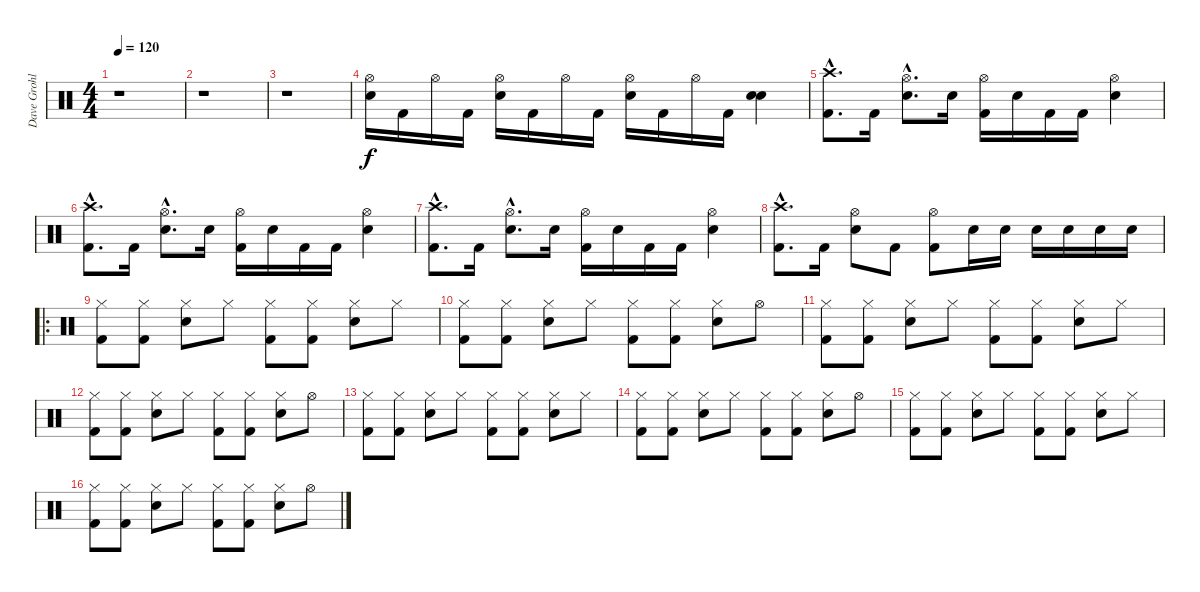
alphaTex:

\track ("Dave Grohl" "Dave Grohl") {instrument percussion}
\staff {score}
\articulation defaults
\ts (4 4)
\tempo 120
\clef neutral
\ks c
r.1{dy f} |
r.1 |
r.1 |
("Hi-Hat (open)" "Snare (hit) 2").16 "Kick (hit) 2".16 "Hi-Hat (open)".16 "Kick (hit) 2".16 ("Hi-Hat (open)" "Snare (hit) 2").16 "Kick (hit) 2".16 "Hi-Hat (open)".16 "Kick (hit) 2".16 ("Hi-Hat (open)" "Snare (hit) 2").16 "Kick (hit) 2".16 "Hi-Hat (open)".16 "Kick (hit) 2".16 ("Snare (hit) 2" "Snare (hit) 2").4 |
("Crash high (hit)"{hac} "Kick (hit) 2"{hac}).8{d} "Kick (hit) 2".16 ("Hi-Hat (open)"{hac} "Snare (hit) 2"{hac}).8{d} "Snare (hit) 2".16 ("Hi-Hat (open)" "Kick (hit) 2").16 "Snare (hit) 2".16 "Kick (hit) 2".16 "Kick (hit) 2".16 ("Hi-Hat (open)" "Snare (hit) 2").4 |
("Crash high (hit)"{hac} "Kick (hit) 2"{hac}).8{d} "Kick (hit) 2".16 ("Hi-Hat (open)"{hac} "Snare (hit) 2"{hac}).8{d} "Snare (hit) 2".16 ("Hi-Hat (open)" "Kick (hit) 2").16 "Snare (hit) 2".16 "Kick (hit) 2".16 "Kick (hit) 2".16 ("Hi-Hat (open)" "Snare (hit) 2").4 |
("Crash high (hit)"{hac} "Kick (hit) 2"{hac}).8{d} "Kick (hit) 2".16 ("Hi-Hat (open)"{hac} "Snare (hit) 2"{hac}).8{d} "Snare (hit) 2".16 ("Hi-Hat (open)" "Kick (hit) 2").16 "Snare (hit) 2".16 "Kick (hit) 2".16 "Kick (hit) 2".16 ("Hi-Hat (open)" "Snare (hit) 2").4 |
("Crash high (hit)"{hac} "Kick (hit) 2"{hac}).8{d} "Kick (hit) 2".16 ("Hi-Hat (open)" "Snare (hit) 2").8 "Kick (hit) 2".8 ("Hi-Hat (open)" "Kick (hit) 2").8 "Snare (hit) 2".16 "Snare (hit) 2".16 "Snare (hit) 2".16 "Snare (hit) 2".16 "Snare (hit) 2".16 "Snare (hit) 2".16 |
\ro
("Hi-Hat (closed)" "Kick (hit) 2").8 ("Hi-Hat (closed)" "Kick (hit) 2").8 ("Hi-Hat (closed)" "Snare (hit) 2").8 "Hi-Hat (closed)".8 ("Hi-Hat (closed)" "Kick (hit) 2").8 ("Hi-Hat (closed)" "Kick (hit) 2").8 ("Hi-Hat (closed)" "Snare (hit) 2").8 "Hi-Hat (closed)".8 |
("Hi-Hat (closed)" "Kick (hit) 2").8 ("Hi-Hat (closed)" "Kick (hit) 2").8 ("Hi-Hat (closed)" "Snare (hit) 2").8 "Hi-Hat (closed)".8 ("Hi-Hat (closed)" "Kick (hit) 2").8 ("Hi-Hat (closed)" "Kick (hit) 2").8 ("Hi-Hat (closed)" "Snare (hit) 2").8 "Hi-Hat (open)".8 |
("Hi-Hat (closed)" "Kick (hit) 2").8 ("Hi-Hat (closed)" "Kick (hit) 2").8 ("Hi-Hat (closed)" "Snare (hit) 2").8 "Hi-Hat (closed)".8 ("Hi-Hat (closed)" "Kick (hit) 2").8 ("Hi-Hat (closed)" "Kick (hit) 2").8 ("Hi-Hat (closed)" "Snare (hit) 2").8 "Hi-Hat (closed)".8 |
("Hi-Hat (closed)" "Kick (hit) 2").8 ("Hi-Hat (closed)" "Kick (hit) 2").8 ("Hi-Hat (closed)" "Snare (hit) 2").8 "Hi-Hat (closed)".8 ("Hi-Hat (closed)" "Kick (hit) 2").8 ("Hi-Hat (closed)" "Kick (hit) 2").8 ("Hi-Hat (closed)" "Snare (hit) 2").8 "Hi-Hat (open)".8 |
("Hi-Hat (closed)" "Kick (hit) 2").8 ("Hi-Hat (closed)" "Kick (hit) 2").8 ("Hi-Hat (closed)" "Snare (hit) 2").8 "Hi-Hat (closed)".8 ("Hi-Hat (closed)" "Kick (hit) 2").8 ("Hi-Hat (closed)" "Kick (hit) 2").8 ("Hi-Hat (closed)" "Snare (hit) 2").8 "Hi-Hat (closed)".8 |
("Hi-Hat (closed)" "Kick (hit) 2").8 ("Hi-Hat (closed)" "Kick (hit) 2").8 ("Hi-Hat (closed)" "Snare (hit) 2").8 "Hi-Hat (closed)".8 ("Hi-Hat (closed)" "Kick (hit) 2").8 ("Hi-Hat (closed)" "Kick (hit) 2").8 ("Hi-Hat (closed)" "Snare (hit) 2").8 "Hi-Hat (open)".8 |
("Hi-Hat (closed)" "Kick (hit) 2").8 ("Hi-Hat (closed)" "Kick (hit) 2").8 ("Hi-Hat (closed)" "Snare (hit) 2").8 "Hi-Hat (closed)".8 ("Hi-Hat (closed)" "Kick (hit) 2").8 ("Hi-Hat (closed)" "Kick (hit) 2").8 ("Hi-Hat (closed)" "Snare (hit) 2").8 "Hi-Hat (closed)".8 |
("Hi-Hat (closed)" "Kick (hit) 2").8 ("Hi-Hat (closed)" "Kick (hit) 2").8 ("Hi-Hat (closed)" "Snare (hit) 2").8 "Hi-Hat (closed)".8 ("Hi-Hat (closed)" "Kick (hit) 2").8 ("Hi-Hat (closed)" "Kick (hit) 2").8 ("Hi-Hat (closed)" "Snare (hit) 2").8 "Hi-Hat (open)".8
